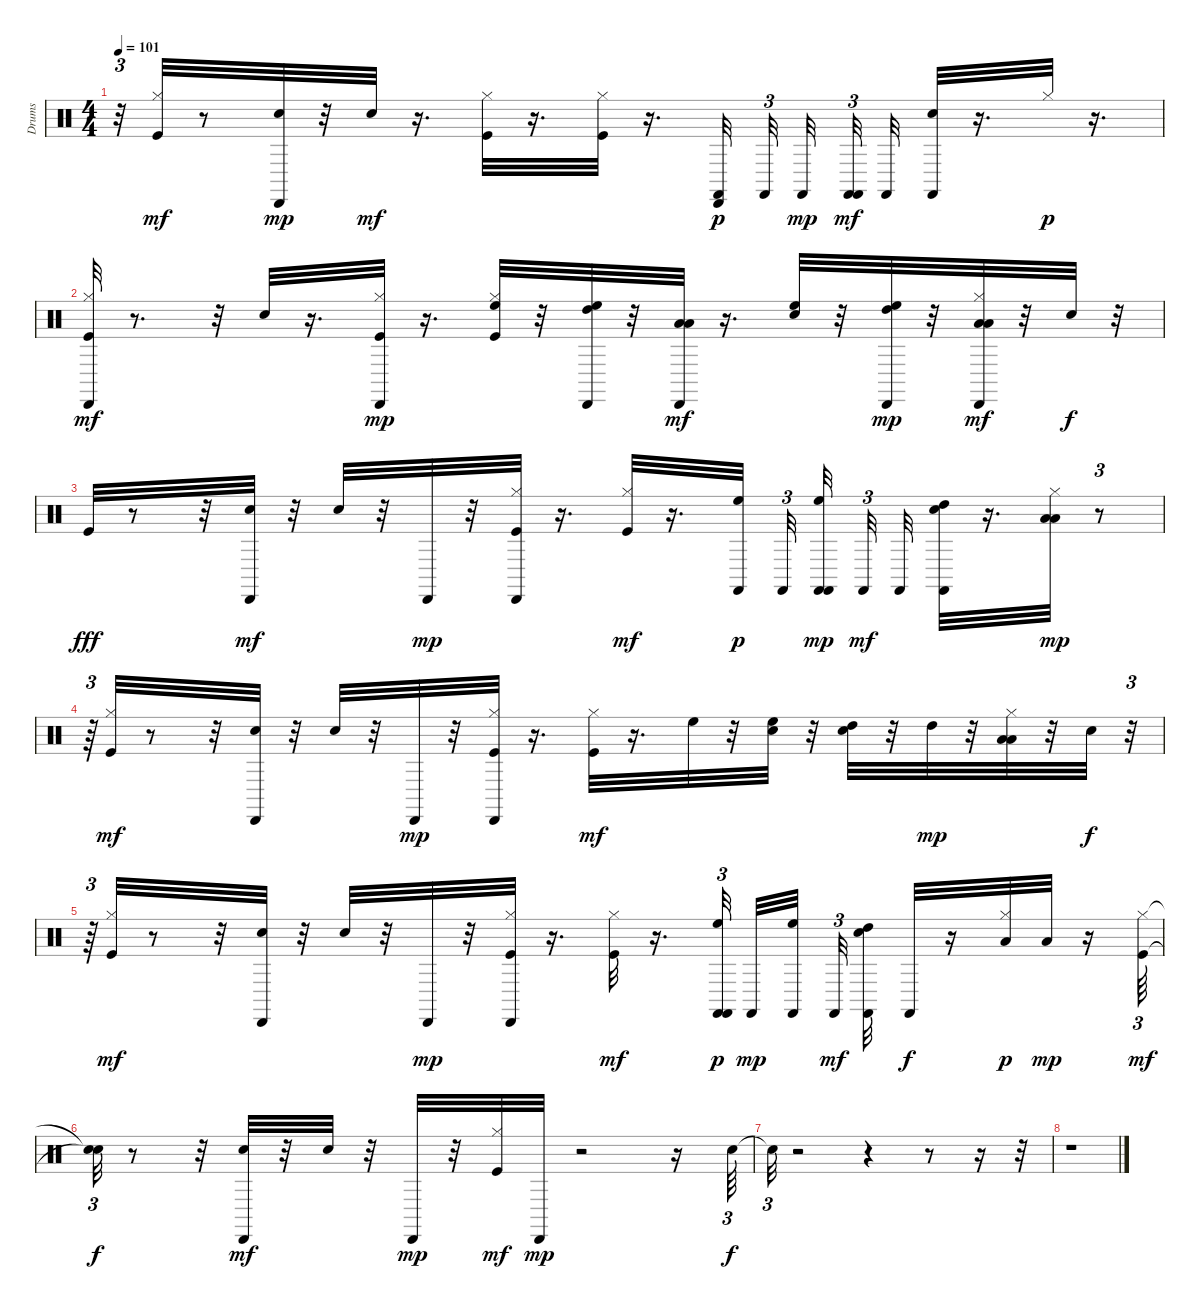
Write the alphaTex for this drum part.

\track ("Drums" "Drums") {instrument percussion}
\staff {score}
\articulation defaults
\ts (4 4)
\tempo 101
\clef neutral
\ks c
r.32{tu (3 2) dy mp} ("Kick (hit)" "Hi-Hat (closed)").32{dy mf} r.8 ("Hand Clap (hit)" "Cabasa (hit)").32{dy mp} r.32 "Snare (hit) 2".32{dy mf} r.16{d} ("Kick (hit)" "Hi-Hat (closed)").32 r.16{d} ("Kick (hit)" "Hi-Hat (closed)").32 r.16{d} ("Cabasa (hit)" "Castanets (hit)").32{dy p beam splitsecondary} "Castanets (hit)".32{tu (3 2) beam splitsecondary} "Castanets (hit)".32{dy mp beam splitsecondary} ("Castanets (hit)" "Castanets (hit)").32{tu (3 2) dy mf} "Castanets (hit)".32 ("Snare (hit) 2" "Castanets (hit)").32 r.16{d} "Hi-Hat (closed)".32{dy p} r.16{d} |
("Kick (hit)" "Hi-Hat (closed)" "Cabasa (hit)").32{dy mf} r.8{d} r.32 "Snare (hit) 2".32 r.16{d} ("Kick (hit)" "Hi-Hat (closed)" "Cabasa (hit)").32{dy mp} r.16{d} ("Kick (hit)" "Hi-Hat (closed)" "High Floor Tom (hit)").32 r.32 ("High Tom (hit)" "High Floor Tom (hit)" "Cabasa (hit)").32 r.32 ("Low Floor Tom (hit)" "Low Tom (hit)" "Cabasa (hit)").32{dy mf} r.16{d} ("Snare (hit) 2" "High Floor Tom (hit)").32 r.32 ("High Tom (hit)" "High Floor Tom (hit)" "Cabasa (hit)").32{dy mp} r.32 ("Low Floor Tom (hit)" "Hi-Hat (closed)" "Low Tom (hit)" "Cabasa (hit)").32{dy mf} r.32 "Hand Clap (hit)".32{dy f} r.32 |
"Kick (hit)".32{dy fff} r.8 r.32 ("Hand Clap (hit)" "Cabasa (hit)").32{dy mf} r.32 "Snare (hit) 2".32 r.32 "Cabasa (hit)".32{dy mp} r.32 ("Kick (hit)" "Hi-Hat (closed)" "Cabasa (hit)").32 r.16{d} ("Kick (hit)" "Hi-Hat (closed)").32{dy mf} r.16{d} ("High Floor Tom (hit)" "Castanets (hit)").32{dy p beam splitsecondary} "Castanets (hit)".32{tu (3 2) beam splitsecondary} ("Castanets (hit)" "High Floor Tom (hit)" "Castanets (hit)").32{dy mp beam splitsecondary} "Castanets (hit)".32{tu (3 2) dy mf} "Castanets (hit)".32 ("Snare (hit) 2" "High Tom (hit)" "Castanets (hit)").32 r.16{d} ("Low Floor Tom (hit)" "Hi-Hat (closed)" "Low Tom (hit)").32{dy mp} r.8{tu (3 2)} |
r.64{tu (3 2)} ("Kick (hit)" "Hi-Hat (closed)").32{dy mf} r.8 r.32 ("Hand Clap (hit)" "Cabasa (hit)").32 r.32 "Snare (hit) 2".32 r.32 "Cabasa (hit)".32{dy mp} r.32 ("Kick (hit)" "Hi-Hat (closed)" "Cabasa (hit)").32 r.16{d} ("Kick (hit)" "Hi-Hat (closed)").32{dy mf} r.16{d} "High Floor Tom (hit)".32 r.32 ("Hand Clap (hit)" "High Floor Tom (hit)").32 r.32 ("Snare (hit) 2" "High Tom (hit)").32 r.32 "High Tom (hit)".32{dy mp} r.32 ("Low Floor Tom (hit)" "Hi-Hat (closed)" "Low Tom (hit)").32 r.32 "Hand Clap (hit)".32{dy f} r.32{tu (3 2)} |
r.64{tu (3 2)} ("Kick (hit)" "Hi-Hat (closed)").32{dy mf} r.8 r.32 ("Hand Clap (hit)" "Cabasa (hit)").32 r.32 "Snare (hit) 2".32 r.32 "Cabasa (hit)".32{dy mp} r.32 ("Kick (hit)" "Hi-Hat (closed)" "Cabasa (hit)").32 r.16{d} ("Kick (hit)" "Hi-Hat (closed)").32{dy mf} r.16{d} ("High Floor Tom (hit)" "Castanets (hit)" "Castanets (hit)").32{tu (3 2) dy p beam splitsecondary} "Castanets (hit)".32{dy mp} ("High Floor Tom (hit)" "Castanets (hit)").32{beam splitsecondary} "Castanets (hit)".32{tu (3 2) dy mf} ("Castanets (hit)" "Snare (hit) 2" "High Tom (hit)").32 "Castanets (hit)".32{dy f} r.16 ("Low Floor Tom (hit)" "Hi-Hat (closed)").32{dy p} "Low Tom (hit)".32{dy mp} r.16 ("Kick (hit)" "Hi-Hat (closed)").64{tu (3 2) dy mf} |
("Snare (hit)"{t} "Snare (hit)"{t}).32{tu (3 2) dy f} r.8 r.32 ("Hand Clap (hit)" "Cabasa (hit)").32{dy mf} r.32 "Snare (hit) 2".32 r.32 "Cabasa (hit)".32{dy mp} r.32 ("Kick (hit)" "Hi-Hat (closed)").32{dy mf} "Cabasa (hit)".32{dy mp} r.2 r.16 "Metronome (bell)".64{tu (3 2) dy f} |
"Snare (hit)"{t}.32{tu (3 2)} r.2 r.4 r.8 r.16 r.32 |
r.1
